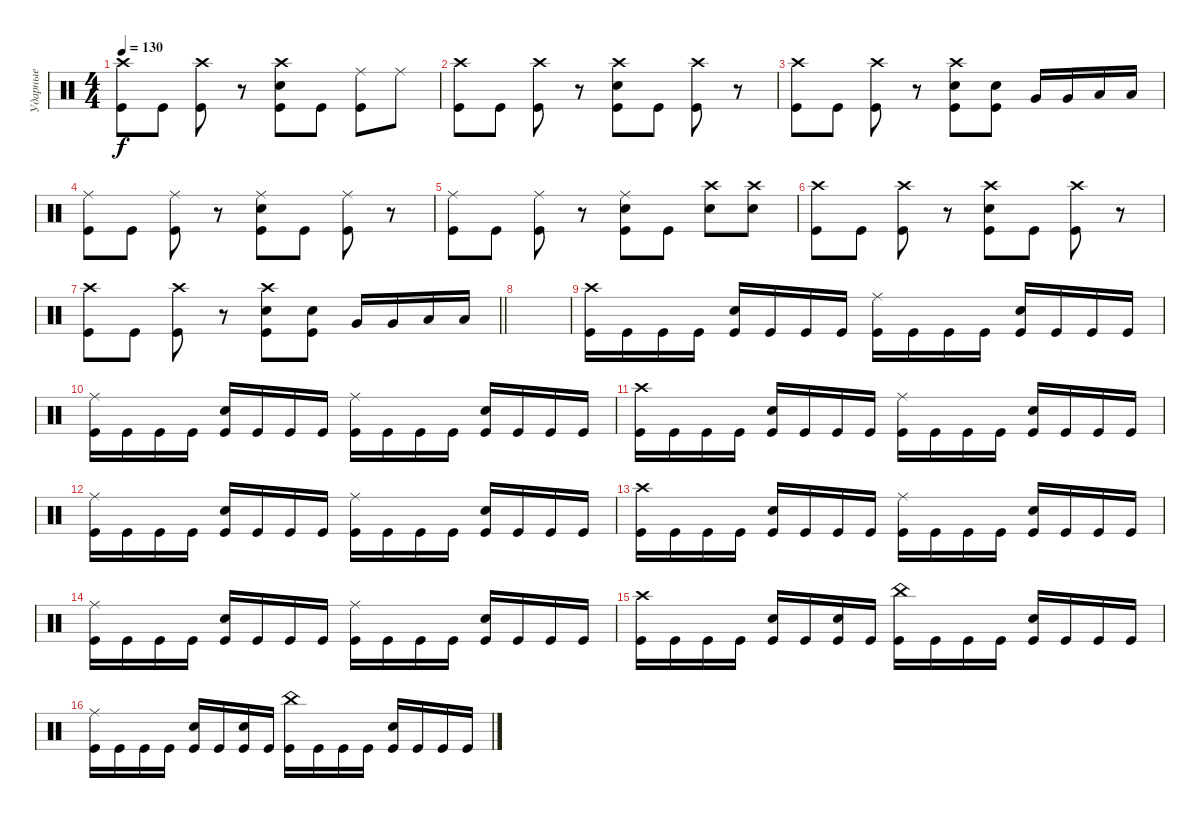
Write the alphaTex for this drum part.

\track ("Ударные" "Ударные") {instrument percussion}
\staff {score}
\articulation defaults
\ts (4 4)
\tempo 130
\clef neutral
\ks c
("Crash high (hit)" "Kick (hit)").8{dy f} "Kick (hit)".8 ("Crash high (hit)" "Kick (hit)").8 r.8 ("Crash high (hit)" "Electric Snare (hit)" "Kick (hit)").8 "Kick (hit)".8 ("Ride (middle)" "Kick (hit)").8 "Ride (middle)".8 |
("Crash high (hit)" "Kick (hit)").8 "Kick (hit)".8 ("Crash high (hit)" "Kick (hit)").8 r.8 ("Crash high (hit)" "Electric Snare (hit)" "Kick (hit)").8 "Kick (hit)".8 ("Crash high (hit)" "Kick (hit)").8 r.8 |
("Crash high (hit)" "Kick (hit)").8 "Kick (hit)".8 ("Crash high (hit)" "Kick (hit)").8 r.8 ("Crash high (hit)" "Electric Snare (hit)" "Kick (hit)").8 ("Electric Snare (hit)" "Kick (hit)").8 "Very Low Tom (hit)".16 "Very Low Tom (hit)".16 "Low Floor Tom (hit)".16 "Low Floor Tom (hit)".16 |
("Ride (middle)" "Kick (hit)").8 "Kick (hit)".8 ("Ride (middle)" "Kick (hit)").8 r.8 ("Ride (middle)" "Electric Snare (hit)" "Kick (hit)").8 "Kick (hit)".8 ("Ride (middle)" "Kick (hit)").8 r.8 |
("Ride (middle)" "Kick (hit)").8 "Kick (hit)".8 ("Ride (middle)" "Kick (hit)").8 r.8 ("Ride (middle)" "Electric Snare (hit)" "Kick (hit)").8 "Kick (hit)".8 ("Crash high (hit)" "Electric Snare (hit)").8 ("Crash high (hit)" "Electric Snare (hit)").8 |
("Crash high (hit)" "Kick (hit)").8 "Kick (hit)".8 ("Crash high (hit)" "Kick (hit)").8 r.8 ("Crash high (hit)" "Electric Snare (hit)" "Kick (hit)").8 "Kick (hit)".8 ("Crash high (hit)" "Kick (hit)").8 r.8 |
\barLineRight lightlight
("Crash high (hit)" "Kick (hit)").8 "Kick (hit)".8 ("Crash high (hit)" "Kick (hit)").8 r.8 ("Crash high (hit)" "Electric Snare (hit)" "Kick (hit)").8 ("Electric Snare (hit)" "Kick (hit)").8 "Very Low Tom (hit)".16 "Very Low Tom (hit)".16 "Low Floor Tom (hit)".16 "Low Floor Tom (hit)".16 |
\section ("" " ")
|
("Crash high (hit)" "Kick (hit)").16 "Kick (hit)".16 "Kick (hit)".16 "Kick (hit)".16 ("Electric Snare (hit)" "Kick (hit)").16 "Kick (hit)".16 "Kick (hit)".16 "Kick (hit)".16 ("Ride (middle)" "Kick (hit)").16 "Kick (hit)".16 "Kick (hit)".16 "Kick (hit)".16 ("Electric Snare (hit)" "Kick (hit)").16 "Kick (hit)".16 "Kick (hit)".16 "Kick (hit)".16 |
("Ride (middle)" "Kick (hit)").16 "Kick (hit)".16 "Kick (hit)".16 "Kick (hit)".16 ("Electric Snare (hit)" "Kick (hit)").16 "Kick (hit)".16 "Kick (hit)".16 "Kick (hit)".16 ("Ride (middle)" "Kick (hit)").16 "Kick (hit)".16 "Kick (hit)".16 "Kick (hit)".16 ("Electric Snare (hit)" "Kick (hit)").16 "Kick (hit)".16 "Kick (hit)".16 "Kick (hit)".16 |
("Crash high (hit)" "Kick (hit)").16 "Kick (hit)".16 "Kick (hit)".16 "Kick (hit)".16 ("Electric Snare (hit)" "Kick (hit)").16 "Kick (hit)".16 "Kick (hit)".16 "Kick (hit)".16 ("Ride (middle)" "Kick (hit)").16 "Kick (hit)".16 "Kick (hit)".16 "Kick (hit)".16 ("Electric Snare (hit)" "Kick (hit)").16 "Kick (hit)".16 "Kick (hit)".16 "Kick (hit)".16 |
("Ride (middle)" "Kick (hit)").16 "Kick (hit)".16 "Kick (hit)".16 "Kick (hit)".16 ("Electric Snare (hit)" "Kick (hit)").16 "Kick (hit)".16 "Kick (hit)".16 "Kick (hit)".16 ("Ride (middle)" "Kick (hit)").16 "Kick (hit)".16 "Kick (hit)".16 "Kick (hit)".16 ("Electric Snare (hit)" "Kick (hit)").16 "Kick (hit)".16 "Kick (hit)".16 "Kick (hit)".16 |
("Crash high (hit)" "Kick (hit)").16 "Kick (hit)".16 "Kick (hit)".16 "Kick (hit)".16 ("Electric Snare (hit)" "Kick (hit)").16 "Kick (hit)".16 "Kick (hit)".16 "Kick (hit)".16 ("Ride (middle)" "Kick (hit)").16 "Kick (hit)".16 "Kick (hit)".16 "Kick (hit)".16 ("Electric Snare (hit)" "Kick (hit)").16 "Kick (hit)".16 "Kick (hit)".16 "Kick (hit)".16 |
("Ride (middle)" "Kick (hit)").16 "Kick (hit)".16 "Kick (hit)".16 "Kick (hit)".16 ("Electric Snare (hit)" "Kick (hit)").16 "Kick (hit)".16 "Kick (hit)".16 "Kick (hit)".16 ("Ride (middle)" "Kick (hit)").16 "Kick (hit)".16 "Kick (hit)".16 "Kick (hit)".16 ("Electric Snare (hit)" "Kick (hit)").16 "Kick (hit)".16 "Kick (hit)".16 "Kick (hit)".16 |
("Crash high (hit)" "Kick (hit)").16 "Kick (hit)".16 "Kick (hit)".16 "Kick (hit)".16 ("Electric Snare (hit)" "Kick (hit)").16 "Kick (hit)".16 ("Electric Snare (hit)" "Kick (hit)").16 "Kick (hit)".16 ("China (hit)" "Kick (hit)").16 "Kick (hit)".16 "Kick (hit)".16 "Kick (hit)".16 ("Electric Snare (hit)" "Kick (hit)").16 "Kick (hit)".16 "Kick (hit)".16 "Kick (hit)".16 |
("Ride (middle)" "Kick (hit)").16 "Kick (hit)".16 "Kick (hit)".16 "Kick (hit)".16 ("Electric Snare (hit)" "Kick (hit)").16 "Kick (hit)".16 ("Electric Snare (hit)" "Kick (hit)").16 "Kick (hit)".16 ("China (hit)" "Kick (hit)").16 "Kick (hit)".16 "Kick (hit)".16 "Kick (hit)".16 ("Electric Snare (hit)" "Kick (hit)").16 "Kick (hit)".16 "Kick (hit)".16 "Kick (hit)".16
